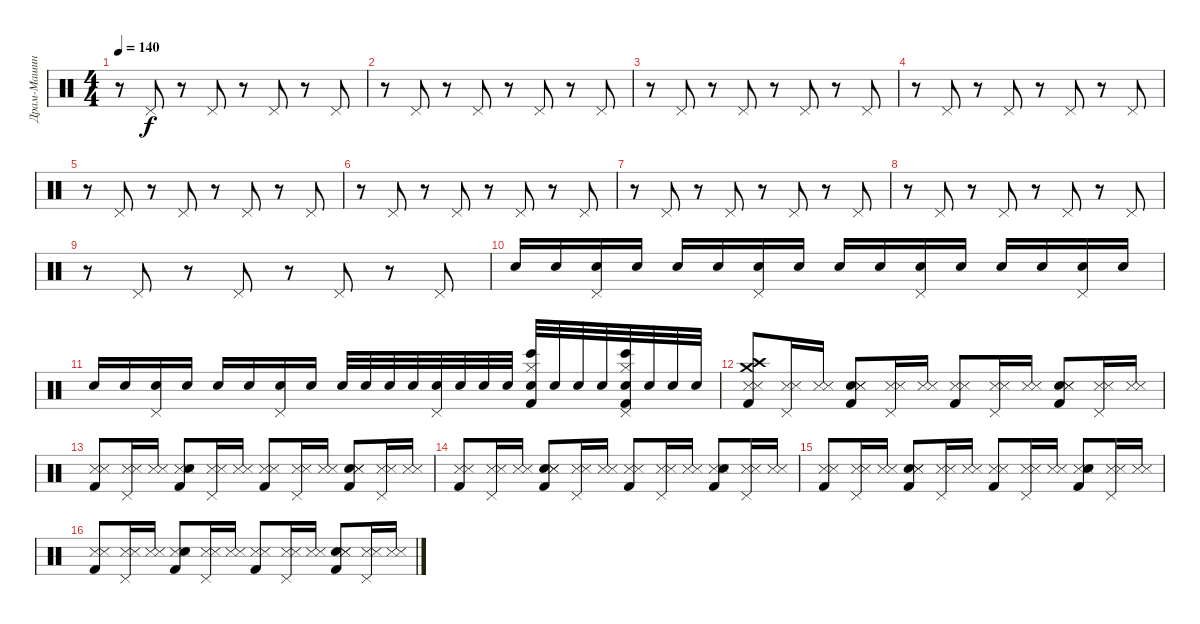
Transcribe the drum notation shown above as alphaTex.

\track ("Драм-Машина" "Драм-Машин") {instrument percussion}
\staff {score}
\articulation defaults
\ts (4 4)
\tempo 140
\clef neutral
\ks c
r.8{dy f} "Pedal Hi-Hat (hit)".8 r.8 "Pedal Hi-Hat (hit)".8 r.8 "Pedal Hi-Hat (hit)".8 r.8 "Pedal Hi-Hat (hit)".8 |
r.8 "Pedal Hi-Hat (hit)".8 r.8 "Pedal Hi-Hat (hit)".8 r.8 "Pedal Hi-Hat (hit)".8 r.8 "Pedal Hi-Hat (hit)".8 |
r.8 "Pedal Hi-Hat (hit)".8 r.8 "Pedal Hi-Hat (hit)".8 r.8 "Pedal Hi-Hat (hit)".8 r.8 "Pedal Hi-Hat (hit)".8 |
r.8 "Pedal Hi-Hat (hit)".8 r.8 "Pedal Hi-Hat (hit)".8 r.8 "Pedal Hi-Hat (hit)".8 r.8 "Pedal Hi-Hat (hit)".8 |
r.8 "Pedal Hi-Hat (hit)".8 r.8 "Pedal Hi-Hat (hit)".8 r.8 "Pedal Hi-Hat (hit)".8 r.8 "Pedal Hi-Hat (hit)".8 |
r.8 "Pedal Hi-Hat (hit)".8 r.8 "Pedal Hi-Hat (hit)".8 r.8 "Pedal Hi-Hat (hit)".8 r.8 "Pedal Hi-Hat (hit)".8 |
r.8 "Pedal Hi-Hat (hit)".8 r.8 "Pedal Hi-Hat (hit)".8 r.8 "Pedal Hi-Hat (hit)".8 r.8 "Pedal Hi-Hat (hit)".8 |
r.8 "Pedal Hi-Hat (hit)".8 r.8 "Pedal Hi-Hat (hit)".8 r.8 "Pedal Hi-Hat (hit)".8 r.8 "Pedal Hi-Hat (hit)".8 |
r.8 "Pedal Hi-Hat (hit)".8 r.8 "Pedal Hi-Hat (hit)".8 r.8 "Pedal Hi-Hat (hit)".8 r.8 "Pedal Hi-Hat (hit)".8 |
"Snare (hit) 2".16{volume 7} "Snare (hit) 2".16{volume 7} ("Pedal Hi-Hat (hit)" "Snare (hit) 2").16{volume 7} "Snare (hit) 2".16{volume 8} "Snare (hit) 2".16{volume 8} "Snare (hit) 2".16{volume 8} ("Pedal Hi-Hat (hit)" "Snare (hit) 2").16{volume 9} "Snare (hit) 2".16{volume 9} "Snare (hit) 2".16{volume 9} "Snare (hit) 2".16{volume 10} ("Pedal Hi-Hat (hit)" "Snare (hit) 2").16{volume 10} "Snare (hit) 2".16{volume 10} "Snare (hit) 2".16{volume 11} "Snare (hit) 2".16{volume 11} ("Pedal Hi-Hat (hit)" "Snare (hit) 2").16{volume 11} "Snare (hit) 2".16{volume 12} |
"Snare (hit) 2".16{volume 12} "Snare (hit) 2".16{volume 12} ("Pedal Hi-Hat (hit)" "Snare (hit) 2").16{volume 13} "Snare (hit) 2".16{volume 13} "Snare (hit) 2".16{volume 13} "Snare (hit) 2".16{volume 14} ("Pedal Hi-Hat (hit)" "Snare (hit) 2").16{volume 15} "Snare (hit) 2".16{volume 16} "Snare (hit) 2".32{volume 16} "Snare (hit) 2".32 "Snare (hit) 2".32 "Snare (hit) 2".32 ("Pedal Hi-Hat (hit)" "Snare (hit) 2").32 "Snare (hit) 2".32 "Snare (hit) 2".32 "Snare (hit) 2".32 ("Hi-Hat (closed)" "Bongo High (hit)" "Kick (hit) 2" "Snare (hit) 2").32 "Snare (hit) 2".32 "Snare (hit) 2".32 "Snare (hit) 2".32 ("Bongo High (hit)" "Pedal Hi-Hat (hit)" "Kick (hit) 2" "Hi-Hat (closed)" "Snare (hit) 2").32 "Snare (hit) 2".32 "Snare (hit) 2".32 "Snare (hit) 2".32 |
("Crash medium (hit)" "Kick (hit) 2" "Snare (side stick) 3" "Crash high (hit)" "Metronome (hit)").8 ("Snare (side stick) 3" "Pedal Hi-Hat (hit)" "Metronome (hit)").16 ("Snare (side stick) 3" "Metronome (hit)").16 ("Kick (hit) 2" "Snare (hit) 2" "Snare (side stick) 3" "Metronome (hit)").8 ("Snare (side stick) 3" "Pedal Hi-Hat (hit)" "Metronome (hit)").16 ("Snare (side stick) 3" "Metronome (hit)").16 ("Snare (side stick) 3" "Kick (hit) 2" "Metronome (hit)").8 ("Snare (side stick) 3" "Pedal Hi-Hat (hit)" "Metronome (hit)").16 ("Snare (side stick) 3" "Metronome (hit)").16 ("Kick (hit) 2" "Snare (hit) 2" "Snare (side stick) 3" "Metronome (hit)").8 ("Pedal Hi-Hat (hit)" "Snare (side stick) 3" "Metronome (hit)").16 ("Snare (side stick) 3" "Metronome (hit)").16 |
("Kick (hit) 2" "Snare (side stick) 3" "Metronome (hit)").8 ("Pedal Hi-Hat (hit)" "Snare (side stick) 3" "Metronome (hit)").16 ("Snare (side stick) 3" "Metronome (hit)").16 ("Snare (side stick) 3" "Snare (hit) 2" "Kick (hit) 2" "Metronome (hit)").8 ("Pedal Hi-Hat (hit)" "Snare (side stick) 3" "Metronome (hit)").16 ("Snare (side stick) 3" "Metronome (hit)").16 ("Kick (hit) 2" "Snare (side stick) 3" "Metronome (hit)").8 ("Pedal Hi-Hat (hit)" "Snare (side stick) 3" "Metronome (hit)").16 ("Snare (side stick) 3" "Metronome (hit)").16 ("Kick (hit) 2" "Snare (hit) 2" "Snare (side stick) 3" "Metronome (hit)").8 ("Pedal Hi-Hat (hit)" "Snare (side stick) 3" "Metronome (hit)").16 ("Snare (side stick) 3" "Metronome (hit)").16 |
("Kick (hit) 2" "Snare (side stick) 3" "Metronome (hit)").8 ("Snare (side stick) 3" "Pedal Hi-Hat (hit)" "Metronome (hit)").16 ("Snare (side stick) 3" "Metronome (hit)").16 ("Snare (hit) 2" "Kick (hit) 2" "Snare (side stick) 3" "Metronome (hit)").8 ("Pedal Hi-Hat (hit)" "Snare (side stick) 3" "Metronome (hit)").16 ("Snare (side stick) 3" "Metronome (hit)").16 ("Snare (side stick) 3" "Kick (hit) 2" "Metronome (hit)").8 ("Snare (side stick) 3" "Pedal Hi-Hat (hit)" "Metronome (hit)").16 ("Snare (side stick) 3" "Metronome (hit)").16 ("Kick (hit) 2" "Snare (side stick) 3" "Snare (hit) 2" "Metronome (hit)").8 ("Pedal Hi-Hat (hit)" "Snare (side stick) 3" "Metronome (hit)").16 ("Snare (side stick) 3" "Metronome (hit)").16 |
("Kick (hit) 2" "Snare (side stick) 3" "Metronome (hit)").8 ("Snare (side stick) 3" "Pedal Hi-Hat (hit)" "Metronome (hit)").16 ("Snare (side stick) 3" "Metronome (hit)").16 ("Kick (hit) 2" "Snare (hit) 2" "Snare (side stick) 3" "Metronome (hit)").8 ("Snare (side stick) 3" "Pedal Hi-Hat (hit)" "Metronome (hit)").16 ("Snare (side stick) 3" "Metronome (hit)").16 ("Kick (hit) 2" "Snare (side stick) 3" "Metronome (hit)").8 ("Pedal Hi-Hat (hit)" "Snare (side stick) 3" "Metronome (hit)").16 ("Snare (side stick) 3" "Metronome (hit)").16 ("Snare (side stick) 3" "Snare (hit) 2" "Kick (hit) 2" "Metronome (hit)").8 ("Snare (side stick) 3" "Pedal Hi-Hat (hit)" "Metronome (hit)").16 ("Snare (side stick) 3" "Metronome (hit)").16 |
("Kick (hit) 2" "Snare (side stick) 3" "Metronome (hit)").8 ("Pedal Hi-Hat (hit)" "Snare (side stick) 3" "Metronome (hit)").16 ("Snare (side stick) 3" "Metronome (hit)").16 ("Kick (hit) 2" "Snare (side stick) 3" "Snare (hit) 2" "Metronome (hit)").8 ("Snare (side stick) 3" "Pedal Hi-Hat (hit)" "Metronome (hit)").16 ("Snare (side stick) 3" "Metronome (hit)").16 ("Kick (hit) 2" "Snare (side stick) 3" "Metronome (hit)").8 ("Pedal Hi-Hat (hit)" "Snare (side stick) 3" "Metronome (hit)").16 ("Snare (side stick) 3" "Metronome (hit)").16 ("Snare (hit) 2" "Snare (side stick) 3" "Kick (hit) 2" "Metronome (hit)").8 ("Pedal Hi-Hat (hit)" "Snare (side stick) 3" "Metronome (hit)").16 ("Snare (side stick) 3" "Metronome (hit)").16
